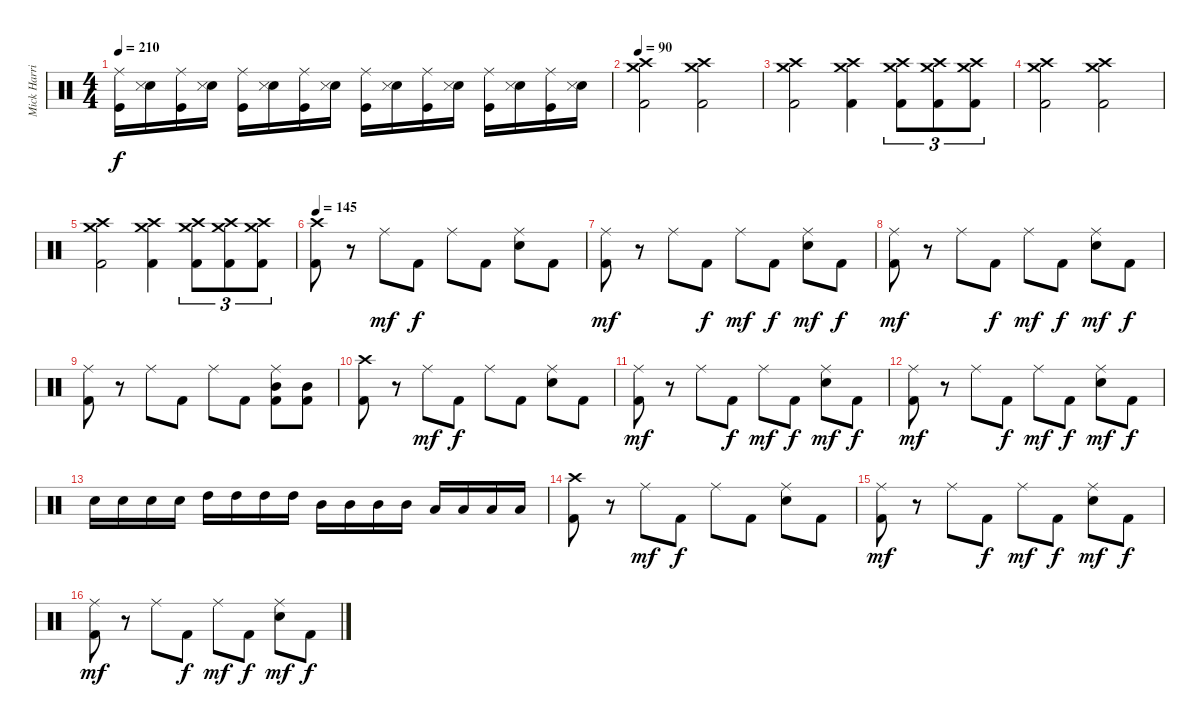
\track ("Mick Harris (Drums)" "Mick Harri") {instrument percussion}
\staff {score}
\articulation defaults
\ts (4 4)
\tempo 210
\clef neutral
\ks c
("Kick (hit)" "Ride (middle)").16{dy f} ("Electric Snare (hit)" "Snare (side stick) 3").16 ("Kick (hit)" "Ride (middle)").16 ("Electric Snare (hit)" "Snare (side stick) 3").16 ("Kick (hit)" "Ride (middle)").16 ("Electric Snare (hit)" "Snare (side stick) 3").16 ("Kick (hit)" "Ride (middle)").16 ("Electric Snare (hit)" "Snare (side stick) 3").16 ("Kick (hit)" "Ride (middle)").16 ("Electric Snare (hit)" "Snare (side stick) 3").16 ("Kick (hit)" "Ride (middle)").16 ("Electric Snare (hit)" "Snare (side stick) 3").16 ("Kick (hit)" "Ride (middle)").16 ("Electric Snare (hit)" "Snare (side stick) 3").16 ("Kick (hit)" "Ride (middle)").16 ("Electric Snare (hit)" "Snare (side stick) 3").16 |
\tempo 90
("Kick (hit) 2" "Crash medium (hit)" "Crash high (hit)").2 ("Kick (hit) 2" "Crash medium (hit)" "Crash high (hit)").2 |
("Kick (hit) 2" "Crash medium (hit)" "Crash high (hit)").2 ("Kick (hit) 2" "Crash high (hit)" "Crash medium (hit)").4 ("Kick (hit) 2" "Crash high (hit)" "Crash medium (hit)").8{tu (3 2)} ("Kick (hit) 2" "Crash high (hit)" "Crash medium (hit)").8{tu (3 2)} ("Kick (hit) 2" "Crash high (hit)" "Crash medium (hit)").8{tu (3 2)} |
("Kick (hit) 2" "Crash medium (hit)" "Crash high (hit)").2 ("Kick (hit) 2" "Crash medium (hit)" "Crash high (hit)").2 |
("Kick (hit) 2" "Crash medium (hit)" "Crash high (hit)").2 ("Kick (hit) 2" "Crash high (hit)" "Crash medium (hit)").4 ("Kick (hit) 2" "Crash high (hit)" "Crash medium (hit)").8{tu (3 2)} ("Kick (hit) 2" "Crash high (hit)" "Crash medium (hit)").8{tu (3 2)} ("Kick (hit) 2" "Crash high (hit)" "Crash medium (hit)").8{tu (3 2)} |
\tempo 145
("Kick (hit) 2" "Crash high (hit)").8 r.8 "Ride (middle)".8{dy mf} "Kick (hit) 2".8{dy f} "Ride (middle)".8 "Kick (hit) 2".8 ("Electric Snare (hit)" "Ride (middle)").8 "Kick (hit) 2".8 |
("Kick (hit) 2" "Ride (middle)").8{dy mf} r.8 "Ride (middle)".8 "Kick (hit) 2".8{dy f} "Ride (middle)".8{dy mf} "Kick (hit) 2".8{dy f} ("Electric Snare (hit)" "Ride (middle)").8{dy mf} "Kick (hit) 2".8{dy f} |
("Kick (hit) 2" "Ride (middle)").8{dy mf} r.8 "Ride (middle)".8 "Kick (hit) 2".8{dy f} "Ride (middle)".8{dy mf} "Kick (hit) 2".8{dy f} ("Electric Snare (hit)" "Ride (middle)").8{dy mf} "Kick (hit) 2".8{dy f} |
("Kick (hit) 2" "Ride (middle)").8 r.8 "Ride (middle)".8 "Kick (hit) 2".8 "Ride (middle)".8 "Kick (hit) 2".8 ("Kick (hit) 2" "Mid Tom (hit)" "Ride (middle)").8 ("Kick (hit) 2" "Mid Tom (hit)").8 |
("Kick (hit) 2" "Crash high (hit)").8 r.8 "Ride (middle)".8{dy mf} "Kick (hit) 2".8{dy f} "Ride (middle)".8 "Kick (hit) 2".8 ("Electric Snare (hit)" "Ride (middle)").8 "Kick (hit) 2".8 |
("Kick (hit) 2" "Ride (middle)").8{dy mf} r.8 "Ride (middle)".8 "Kick (hit) 2".8{dy f} "Ride (middle)".8{dy mf} "Kick (hit) 2".8{dy f} ("Electric Snare (hit)" "Ride (middle)").8{dy mf} "Kick (hit) 2".8{dy f} |
("Kick (hit) 2" "Ride (middle)").8{dy mf} r.8 "Ride (middle)".8 "Kick (hit) 2".8{dy f} "Ride (middle)".8{dy mf} "Kick (hit) 2".8{dy f} ("Electric Snare (hit)" "Ride (middle)").8{dy mf} "Kick (hit) 2".8{dy f} |
"Electric Snare (hit)".16 "Electric Snare (hit)".16 "Electric Snare (hit)".16 "Electric Snare (hit)".16 "High Tom (hit)".16 "High Tom (hit)".16 "High Tom (hit)".16 "High Tom (hit)".16 "Mid Tom (hit)".16 "Mid Tom (hit)".16 "Mid Tom (hit)".16 "Mid Tom (hit)".16 "Low Tom (hit)".16 "Low Tom (hit)".16 "Low Tom (hit)".16 "Low Tom (hit)".16 |
("Kick (hit) 2" "Crash high (hit)").8 r.8 "Ride (middle)".8{dy mf} "Kick (hit) 2".8{dy f} "Ride (middle)".8 "Kick (hit) 2".8 ("Electric Snare (hit)" "Ride (middle)").8 "Kick (hit) 2".8 |
("Kick (hit) 2" "Ride (middle)").8{dy mf} r.8 "Ride (middle)".8 "Kick (hit) 2".8{dy f} "Ride (middle)".8{dy mf} "Kick (hit) 2".8{dy f} ("Electric Snare (hit)" "Ride (middle)").8{dy mf} "Kick (hit) 2".8{dy f} |
("Kick (hit) 2" "Ride (middle)").8{dy mf} r.8 "Ride (middle)".8 "Kick (hit) 2".8{dy f} "Ride (middle)".8{dy mf} "Kick (hit) 2".8{dy f} ("Electric Snare (hit)" "Ride (middle)").8{dy mf} "Kick (hit) 2".8{dy f}
